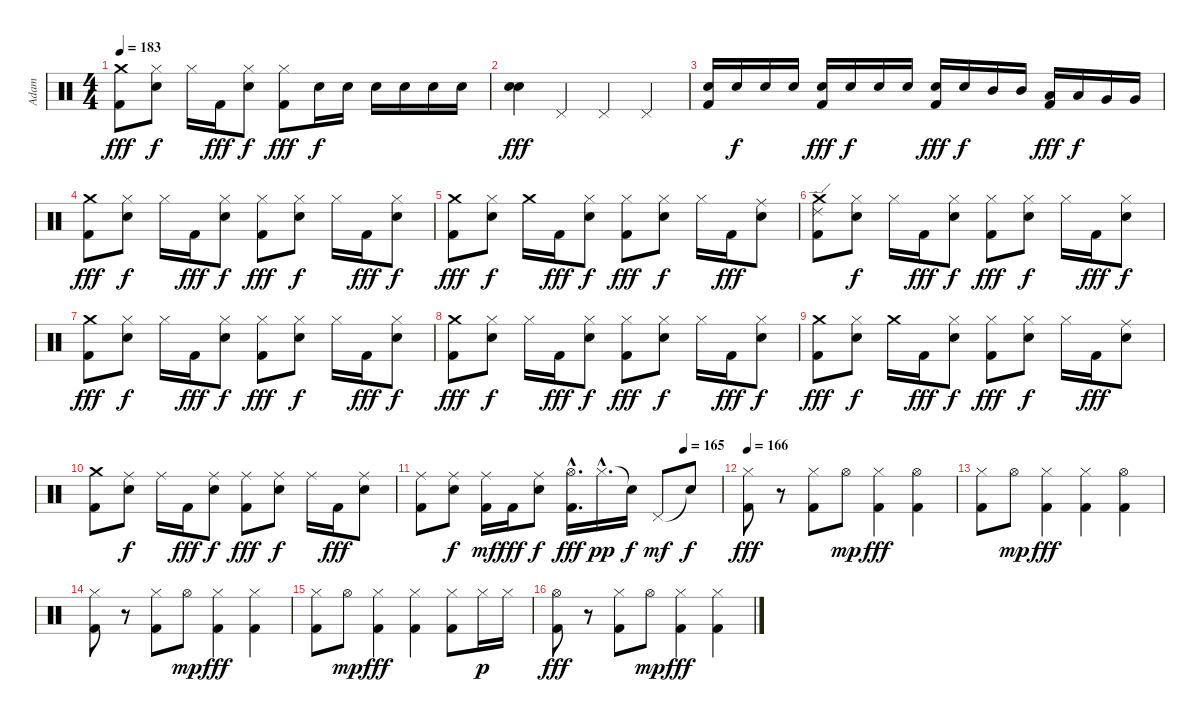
\track ("Adam" "Adam") {instrument percussion}
\staff {score}
\articulation defaults
\ts (4 4)
\tempo 183
\clef neutral
\ks c
("Crash medium (hit)" "Kick (hit) 2").8{dy fff} ("Hi-Hat (closed)" "Electric Snare (hit)").8{dy f} "Hi-Hat (closed)".16 "Kick (hit) 2".16{dy fff} ("Hi-Hat (closed)" "Electric Snare (hit)").8{dy f} ("Hi-Hat (closed)" "Kick (hit) 2").8{dy fff} "Electric Snare (hit)".16{dy f} "Electric Snare (hit)".16 "Electric Snare (hit)".16 "Electric Snare (hit)".16 "Electric Snare (hit)".16 "Electric Snare (hit)".16 |
("Snare (hit) 2" "Electric Snare (hit)").4{dy fff} "Pedal Hi-Hat (hit)".4 "Pedal Hi-Hat (hit)".4 "Pedal Hi-Hat (hit)".4 |
("Electric Snare (hit)" "Kick (hit) 2").16 "Electric Snare (hit)".16{dy f} "Electric Snare (hit)".16 "Electric Snare (hit)".16 ("Electric Snare (hit)" "Kick (hit) 2").16{dy fff} "Electric Snare (hit)".16{dy f} "Electric Snare (hit)".16 "Electric Snare (hit)".16 ("Electric Snare (hit)" "Kick (hit) 2").16{dy fff} "Electric Snare (hit)".16{dy f} "Mid Tom (hit)".16 "Mid Tom (hit)".16 ("Low Tom (hit)" "Kick (hit) 2").16{dy fff} "Low Tom (hit)".16{dy f} "Very Low Tom (hit)".16 "Very Low Tom (hit)".16 |
("Crash medium (hit)" "Kick (hit) 2").8{dy fff} ("Hi-Hat (closed)" "Electric Snare (hit)").8{dy f} "Hi-Hat (closed)".16 "Kick (hit) 2".16{dy fff} ("Hi-Hat (closed)" "Electric Snare (hit)").8{dy f} ("Hi-Hat (closed)" "Kick (hit) 2").8{dy fff} ("Hi-Hat (closed)" "Electric Snare (hit)").8{dy f} "Hi-Hat (closed)".16 "Kick (hit) 2".16{dy fff} ("Hi-Hat (closed)" "Electric Snare (hit)").8{dy f} |
("Crash medium (hit)" "Kick (hit) 2").8{dy fff} ("Hi-Hat (closed)" "Electric Snare (hit)").8{dy f} "Crash medium (hit)".16 "Kick (hit) 2".16{dy fff} ("Hi-Hat (closed)" "Electric Snare (hit)").8{dy f} ("Hi-Hat (closed)" "Kick (hit) 2").8{dy fff} ("Hi-Hat (closed)" "Electric Snare (hit)").8{dy f} "Hi-Hat (closed)".16 "Kick (hit) 2".16{dy fff} ("Ride (middle)" "Electric Snare (hit)").8 |
("Ride (edge) 2" "Crash medium (hit)" "Kick (hit) 2").8 ("Hi-Hat (closed)" "Electric Snare (hit)").8{dy f} "Hi-Hat (closed)".16 "Kick (hit) 2".16{dy fff} ("Hi-Hat (closed)" "Electric Snare (hit)").8{dy f} ("Hi-Hat (closed)" "Kick (hit) 2").8{dy fff} ("Hi-Hat (closed)" "Electric Snare (hit)").8{dy f} "Hi-Hat (closed)".16 "Kick (hit) 2".16{dy fff} ("Hi-Hat (closed)" "Electric Snare (hit)").8{dy f} |
("Crash medium (hit)" "Kick (hit) 2").8{dy fff} ("Hi-Hat (closed)" "Electric Snare (hit)").8{dy f} "Hi-Hat (closed)".16 "Kick (hit) 2".16{dy fff} ("Hi-Hat (closed)" "Electric Snare (hit)").8{dy f} ("Hi-Hat (closed)" "Kick (hit) 2").8{dy fff} ("Hi-Hat (closed)" "Electric Snare (hit)").8{dy f} "Hi-Hat (closed)".16 "Kick (hit) 2".16{dy fff} ("Hi-Hat (closed)" "Electric Snare (hit)").8{dy f} |
("Crash medium (hit)" "Kick (hit) 2").8{dy fff} ("Hi-Hat (closed)" "Electric Snare (hit)").8{dy f} "Hi-Hat (closed)".16 "Kick (hit) 2".16{dy fff} ("Hi-Hat (closed)" "Electric Snare (hit)").8{dy f} ("Hi-Hat (closed)" "Kick (hit) 2").8{dy fff} ("Hi-Hat (closed)" "Electric Snare (hit)").8{dy f} "Hi-Hat (closed)".16 "Kick (hit) 2".16{dy fff} ("Hi-Hat (closed)" "Electric Snare (hit)").8{dy f} |
("Crash medium (hit)" "Kick (hit) 2").8{dy fff} ("Hi-Hat (closed)" "Electric Snare (hit)").8{dy f} "Crash medium (hit)".16 "Kick (hit) 2".16{dy fff} ("Hi-Hat (closed)" "Electric Snare (hit)").8{dy f} ("Hi-Hat (closed)" "Kick (hit) 2").8{dy fff} ("Hi-Hat (closed)" "Electric Snare (hit)").8{dy f} "Hi-Hat (closed)".16 "Kick (hit) 2".16{dy fff} ("Ride (middle)" "Electric Snare (hit)").8 |
("Crash medium (hit)" "Kick (hit) 2").8 ("Ride (middle)" "Electric Snare (hit)").8{dy f} "Ride (middle)".16 "Kick (hit) 2".16{dy fff} ("Ride (middle)" "Electric Snare (hit)").8{dy f} ("Ride (middle)" "Kick (hit) 2").8{dy fff} ("Ride (middle)" "Electric Snare (hit)").8{dy f} "Ride (middle)".16 "Kick (hit) 2".16{dy fff} ("Ride (middle)" "Electric Snare (hit)").8 |
\tempo (165 0.875)
("Ride (middle)" "Kick (hit) 2").8 ("Ride (middle)" "Electric Snare (hit)").8{dy f} ("Ride (middle)" "Kick (hit) 2").16{dy mf} "Kick (hit) 2".16{dy fff} ("Ride (middle)" "Electric Snare (hit)").8{dy f} ("Hi-Hat (open)"{hac} "Kick (hit) 2"{hac}).16{d dy fff} "Hi-Hat (closed)"{hac}.16{d dy pp} "Snare (hit)"{t}.16{dy f} "Pedal Hi-Hat (hit)".8{dy mf} "Snare (hit)"{t}.8{dy f} |
\tempo 166
("Hi-Hat (closed)" "Kick (hit) 2").8{dy fff} r.8 ("Hi-Hat (closed)" "Kick (hit) 2").8 "Hi-Hat (open)".8{dy mp} ("Hi-Hat (closed)" "Kick (hit) 2").4{dy fff} ("Hi-Hat (open)" "Kick (hit) 2").4 |
("Hi-Hat (closed)" "Kick (hit) 2").8 "Hi-Hat (open)".8{dy mp} ("Hi-Hat (closed)" "Kick (hit) 2").4{dy fff} ("Hi-Hat (closed)" "Kick (hit) 2").4 ("Hi-Hat (open)" "Kick (hit) 2").4 |
("Hi-Hat (closed)" "Kick (hit) 2").8 r.8 ("Hi-Hat (closed)" "Kick (hit) 2").8 "Hi-Hat (open)".8{dy mp} ("Hi-Hat (closed)" "Kick (hit) 2").4{dy fff} ("Hi-Hat (closed)" "Kick (hit) 2").4 |
("Hi-Hat (closed)" "Kick (hit) 2").8 "Hi-Hat (open)".8{dy mp} ("Hi-Hat (closed)" "Kick (hit) 2").4{dy fff} ("Hi-Hat (closed)" "Kick (hit) 2").4 ("Hi-Hat (closed)" "Kick (hit) 2").8 "Hi-Hat (closed)".16{dy p} "Hi-Hat (closed)".16 |
("Hi-Hat (open)" "Kick (hit) 2").8{dy fff} r.8 ("Hi-Hat (closed)" "Kick (hit) 2").8 "Hi-Hat (open)".8{dy mp} ("Hi-Hat (closed)" "Kick (hit) 2").4{dy fff} ("Hi-Hat (closed)" "Kick (hit) 2").4
